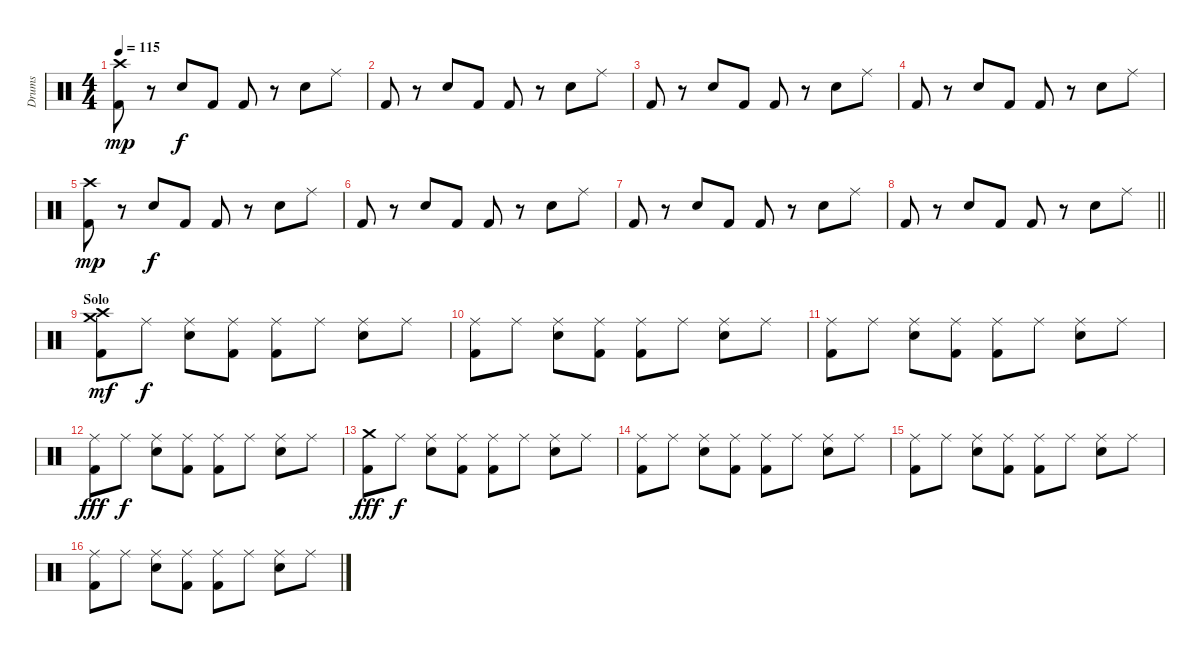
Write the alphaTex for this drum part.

\track ("Drums" "Drums") {instrument percussion}
\staff {score}
\articulation defaults
\ts (4 4)
\tempo 115
\clef neutral
\ks c
("Crash high (hit)" "Kick (hit) 2").8{dy mp} r.8 "Electric Snare (hit)".8{dy f} "Kick (hit) 2".8 "Kick (hit) 2".8 r.8 "Electric Snare (hit)".8 "Ride (middle)".8 |
"Kick (hit) 2".8 r.8 "Electric Snare (hit)".8 "Kick (hit) 2".8 "Kick (hit) 2".8 r.8 "Electric Snare (hit)".8 "Ride (middle)".8 |
"Kick (hit) 2".8 r.8 "Electric Snare (hit)".8 "Kick (hit) 2".8 "Kick (hit) 2".8 r.8 "Electric Snare (hit)".8 "Ride (middle)".8 |
"Kick (hit) 2".8 r.8 "Electric Snare (hit)".8 "Kick (hit) 2".8 "Kick (hit) 2".8 r.8 "Electric Snare (hit)".8 "Ride (middle)".8 |
("Crash high (hit)" "Kick (hit) 2").8{dy mp} r.8 "Electric Snare (hit)".8{dy f} "Kick (hit) 2".8 "Kick (hit) 2".8 r.8 "Electric Snare (hit)".8 "Ride (middle)".8 |
"Kick (hit) 2".8 r.8 "Electric Snare (hit)".8 "Kick (hit) 2".8 "Kick (hit) 2".8 r.8 "Electric Snare (hit)".8 "Ride (middle)".8 |
"Kick (hit) 2".8 r.8 "Electric Snare (hit)".8 "Kick (hit) 2".8 "Kick (hit) 2".8 r.8 "Electric Snare (hit)".8 "Ride (middle)".8 |
\barLineRight lightlight "Kick (hit) 2".8
r.8 "Electric Snare (hit)".8 "Kick (hit) 2".8 "Kick (hit) 2".8 r.8 "Electric Snare (hit)".8 "Ride (middle)".8 |
\section ("" "Solo")
("Crash medium (hit)" "Crash high (hit)" "Kick (hit) 2").8{dy mf} "Ride (middle)".8{dy f} ("Ride (middle)" "Electric Snare (hit)").8 ("Ride (middle)" "Kick (hit) 2").8 ("Ride (middle)" "Kick (hit) 2").8 "Ride (middle)".8 ("Ride (middle)" "Electric Snare (hit)").8 "Ride (middle)".8 |
("Ride (middle)" "Kick (hit) 2").8 "Ride (middle)".8 ("Ride (middle)" "Electric Snare (hit)").8 ("Ride (middle)" "Kick (hit) 2").8 ("Ride (middle)" "Kick (hit) 2").8 "Ride (middle)".8 ("Ride (middle)" "Electric Snare (hit)").8 "Ride (middle)".8 |
("Ride (middle)" "Kick (hit) 2").8 "Ride (middle)".8 ("Ride (middle)" "Electric Snare (hit)").8 ("Ride (middle)" "Kick (hit) 2").8 ("Ride (middle)" "Kick (hit) 2").8 "Ride (middle)".8 ("Ride (middle)" "Electric Snare (hit)").8 "Ride (middle)".8 |
("Ride (middle)" "Kick (hit) 2").8{dy fff} "Ride (middle)".8{dy f} ("Ride (middle)" "Electric Snare (hit)").8 ("Ride (middle)" "Kick (hit) 2").8 ("Ride (middle)" "Kick (hit) 2").8 "Ride (middle)".8 ("Ride (middle)" "Electric Snare (hit)").8 "Ride (middle)".8 |
("Crash medium (hit)" "Kick (hit) 2").8{dy fff} "Ride (middle)".8{dy f} ("Ride (middle)" "Electric Snare (hit)").8 ("Ride (middle)" "Kick (hit) 2").8 ("Ride (middle)" "Kick (hit) 2").8 "Ride (middle)".8 ("Ride (middle)" "Electric Snare (hit)").8 "Ride (middle)".8 |
("Ride (middle)" "Kick (hit) 2").8 "Ride (middle)".8 ("Ride (middle)" "Electric Snare (hit)").8 ("Ride (middle)" "Kick (hit) 2").8 ("Ride (middle)" "Kick (hit) 2").8 "Ride (middle)".8 ("Ride (middle)" "Electric Snare (hit)").8 "Ride (middle)".8 |
("Ride (middle)" "Kick (hit) 2").8 "Ride (middle)".8 ("Ride (middle)" "Electric Snare (hit)").8 ("Ride (middle)" "Kick (hit) 2").8 ("Ride (middle)" "Kick (hit) 2").8 "Ride (middle)".8 ("Ride (middle)" "Electric Snare (hit)").8 "Ride (middle)".8 |
("Ride (middle)" "Kick (hit) 2").8 "Ride (middle)".8 ("Ride (middle)" "Electric Snare (hit)").8 ("Ride (middle)" "Kick (hit) 2").8 ("Ride (middle)" "Kick (hit) 2").8 "Ride (middle)".8 ("Ride (middle)" "Electric Snare (hit)").8 "Ride (middle)".8
